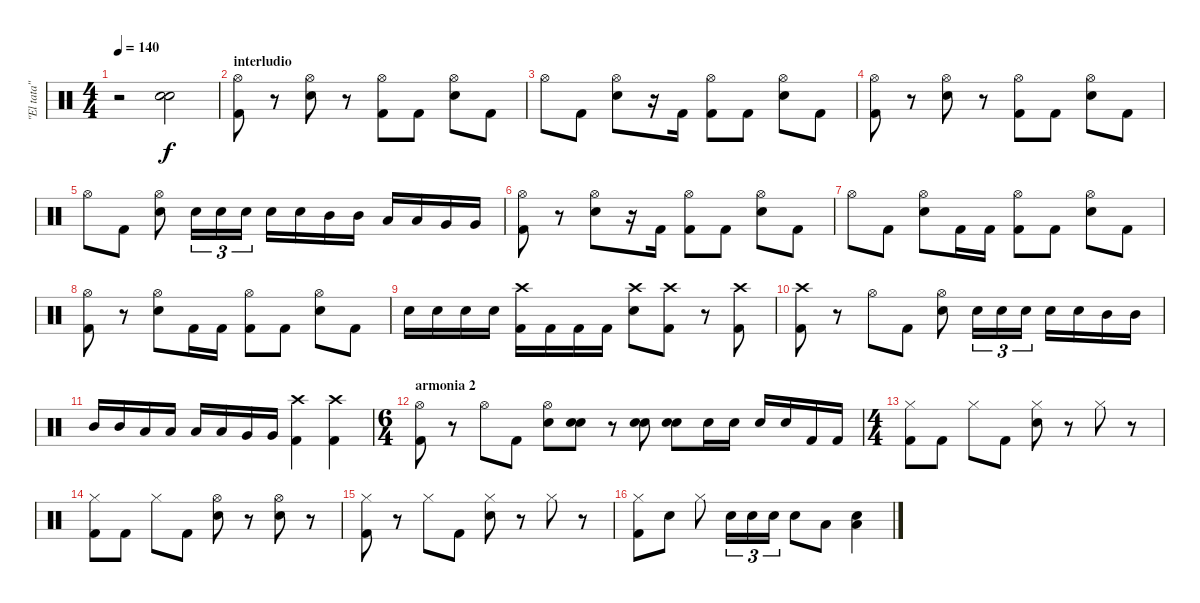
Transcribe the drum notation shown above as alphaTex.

\track ("\"El tata\"" "\"El tata\"") {instrument percussion}
\staff {score}
\articulation defaults
\ts (4 4)
\tempo 140
\clef neutral
\ks c
r.2{dy f} ("Electric Snare (hit)" "Electric Snare (hit)").2 |
\section ("" "interludio")
("Hi-Hat (open)" "Kick (hit) 2").8 r.8 ("Hi-Hat (open)" "Electric Snare (hit)").8 r.8 ("Hi-Hat (open)" "Kick (hit) 2").8 "Kick (hit) 2".8 ("Hi-Hat (open)" "Electric Snare (hit)").8 "Kick (hit) 2".8 |
"Hi-Hat (open)".8 "Kick (hit) 2".8 ("Hi-Hat (open)" "Electric Snare (hit)").8 r.16 "Kick (hit) 2".16 ("Hi-Hat (open)" "Kick (hit) 2").8 "Kick (hit) 2".8 ("Hi-Hat (open)" "Electric Snare (hit)").8 "Kick (hit) 2".8 |
("Hi-Hat (open)" "Kick (hit) 2").8 r.8 ("Hi-Hat (open)" "Electric Snare (hit)").8 r.8 ("Hi-Hat (open)" "Kick (hit) 2").8 "Kick (hit) 2".8 ("Hi-Hat (open)" "Electric Snare (hit)").8 "Kick (hit) 2".8 |
"Hi-Hat (open)".8 "Kick (hit) 2".8 ("Hi-Hat (open)" "Electric Snare (hit)").8 "Electric Snare (hit)".16{tu (3 2)} "Electric Snare (hit)".16{tu (3 2)} "Electric Snare (hit)".16{tu (3 2)} "Electric Snare (hit)".16 "Electric Snare (hit)".16 "Mid Tom (hit)".16 "Mid Tom (hit)".16 "Low Tom (hit)".16 "Low Tom (hit)".16 "Very Low Tom (hit)".16 "Very Low Tom (hit)".16 |
("Hi-Hat (open)" "Kick (hit) 2").8 r.8 ("Hi-Hat (open)" "Electric Snare (hit)").8 r.16 "Kick (hit) 2".16 ("Hi-Hat (open)" "Kick (hit) 2").8 "Kick (hit) 2".8 ("Hi-Hat (open)" "Electric Snare (hit)").8 "Kick (hit) 2".8 |
"Hi-Hat (open)".8 "Kick (hit) 2".8 ("Hi-Hat (open)" "Electric Snare (hit)").8 "Kick (hit) 2".16 "Kick (hit) 2".16 ("Hi-Hat (open)" "Kick (hit) 2").8 "Kick (hit) 2".8 ("Hi-Hat (open)" "Electric Snare (hit)").8 "Kick (hit) 2".8 |
("Hi-Hat (open)" "Kick (hit) 2").8 r.8 ("Hi-Hat (open)" "Electric Snare (hit)").8 "Kick (hit) 2".16 "Kick (hit) 2".16 ("Hi-Hat (open)" "Kick (hit) 2").8 "Kick (hit) 2".8 ("Hi-Hat (open)" "Electric Snare (hit)").8 "Kick (hit) 2".8 |
"Electric Snare (hit)".16 "Electric Snare (hit)".16 "Electric Snare (hit)".16 "Electric Snare (hit)".16 ("Crash high (hit)" "Kick (hit) 2").16 "Kick (hit) 2".16 "Kick (hit) 2".16 "Kick (hit) 2".16 ("Crash high (hit)" "Electric Snare (hit)").8 ("Crash high (hit)" "Kick (hit) 2").8 r.8 ("Crash high (hit)" "Kick (hit) 2").8 |
("Crash high (hit)" "Kick (hit) 2").8 r.8 "Hi-Hat (open)".8 "Kick (hit) 2".8 ("Hi-Hat (open)" "Electric Snare (hit)").8 "Electric Snare (hit)".16{tu (3 2)} "Electric Snare (hit)".16{tu (3 2)} "Electric Snare (hit)".16{tu (3 2)} "Electric Snare (hit)".16 "Electric Snare (hit)".16 "Mid Tom (hit)".16 "Mid Tom (hit)".16 |
"Mid Tom (hit)".16 "Mid Tom (hit)".16 "Low Tom (hit)".16 "Low Tom (hit)".16 "Low Tom (hit)".16 "Low Tom (hit)".16 "Very Low Tom (hit)".16 "Very Low Tom (hit)".16 ("Crash high (hit)" "Kick (hit) 2").4 ("Crash high (hit)" "Kick (hit) 2").4 |
\ts (6 4)
\section ("" "armonia 2")
("Hi-Hat (open)" "Kick (hit) 2").8 r.8 "Hi-Hat (open)".8 "Kick (hit) 2".8 ("Hi-Hat (open)" "Electric Snare (hit)").8 ("Electric Snare (hit)" "Electric Snare (hit)").8 r.8 ("Electric Snare (hit)" "Electric Snare (hit)").8 ("Electric Snare (hit)" "Electric Snare (hit)").8 "Electric Snare (hit)".16 "Electric Snare (hit)".16 "Electric Snare (hit)".16 "Electric Snare (hit)".16 "Kick (hit) 2".16 "Kick (hit) 2".16 |
\ts (4 4)
("Hi-Hat (closed)" "Kick (hit) 2").8 "Kick (hit) 2".8 "Hi-Hat (closed)".8 "Kick (hit) 2".8 ("Hi-Hat (closed)" "Electric Snare (hit)").8 r.8 "Hi-Hat (closed)".8 r.8 |
("Hi-Hat (closed)" "Kick (hit) 2").8 "Kick (hit) 2".8 "Hi-Hat (closed)".8 "Kick (hit) 2".8 ("Hi-Hat (open)" "Electric Snare (hit)").8 r.8 ("Hi-Hat (open)" "Electric Snare (hit)").8 r.8 |
("Hi-Hat (closed)" "Kick (hit) 2").8 r.8 "Hi-Hat (closed)".8 "Kick (hit) 2".8 ("Hi-Hat (closed)" "Electric Snare (hit)").8 r.8 "Hi-Hat (closed)".8 r.8 |
("Hi-Hat (closed)" "Kick (hit) 2").8 "Electric Snare (hit)".8 "Hi-Hat (closed)".8 "Electric Snare (hit)".16{tu (3 2)} "Electric Snare (hit)".16{tu (3 2)} "Electric Snare (hit)".16{tu (3 2)} "Electric Snare (hit)".8 "Low Tom (hit)".8 ("Low Tom (hit)" "Electric Snare (hit)").4
